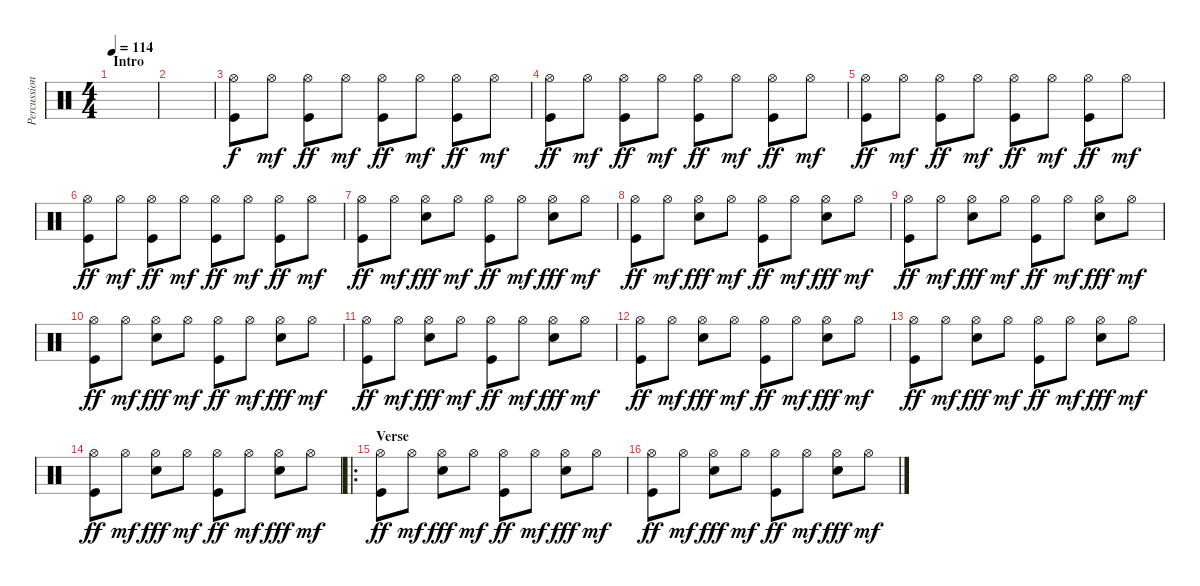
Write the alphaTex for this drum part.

\track ("Percussion" "Percussion") {instrument percussion}
\staff {score}
\articulation defaults
\ts (4 4)
\section ("" "Intro")
\tempo 114
\clef neutral
\ks c
|
|
("Hi-Hat (open)" "Kick (hit)").8 "Hi-Hat (open)".8{dy mf} ("Hi-Hat (open)" "Kick (hit)").8{dy ff} "Hi-Hat (open)".8{dy mf} ("Hi-Hat (open)" "Kick (hit)").8{dy ff} "Hi-Hat (open)".8{dy mf} ("Hi-Hat (open)" "Kick (hit)").8{dy ff} "Hi-Hat (open)".8{dy mf} |
("Hi-Hat (open)" "Kick (hit)").8{dy ff} "Hi-Hat (open)".8{dy mf} ("Hi-Hat (open)" "Kick (hit)").8{dy ff} "Hi-Hat (open)".8{dy mf} ("Hi-Hat (open)" "Kick (hit)").8{dy ff} "Hi-Hat (open)".8{dy mf} ("Hi-Hat (open)" "Kick (hit)").8{dy ff} "Hi-Hat (open)".8{dy mf} |
("Hi-Hat (open)" "Kick (hit)").8{dy ff} "Hi-Hat (open)".8{dy mf} ("Hi-Hat (open)" "Kick (hit)").8{dy ff} "Hi-Hat (open)".8{dy mf} ("Hi-Hat (open)" "Kick (hit)").8{dy ff} "Hi-Hat (open)".8{dy mf} ("Hi-Hat (open)" "Kick (hit)").8{dy ff} "Hi-Hat (open)".8{dy mf} |
("Hi-Hat (open)" "Kick (hit)").8{dy ff} "Hi-Hat (open)".8{dy mf} ("Hi-Hat (open)" "Kick (hit)").8{dy ff} "Hi-Hat (open)".8{dy mf} ("Hi-Hat (open)" "Kick (hit)").8{dy ff} "Hi-Hat (open)".8{dy mf} ("Hi-Hat (open)" "Kick (hit)").8{dy ff} "Hi-Hat (open)".8{dy mf} |
("Hi-Hat (open)" "Kick (hit)").8{dy ff} "Hi-Hat (open)".8{dy mf} ("Hi-Hat (open)" "Snare (hit) 2").8{dy fff} "Hi-Hat (open)".8{dy mf} ("Hi-Hat (open)" "Kick (hit)").8{dy ff} "Hi-Hat (open)".8{dy mf} ("Hi-Hat (open)" "Snare (hit) 2").8{dy fff} "Hi-Hat (open)".8{dy mf} |
("Hi-Hat (open)" "Kick (hit)").8{dy ff} "Hi-Hat (open)".8{dy mf} ("Hi-Hat (open)" "Snare (hit) 2").8{dy fff} "Hi-Hat (open)".8{dy mf} ("Hi-Hat (open)" "Kick (hit)").8{dy ff} "Hi-Hat (open)".8{dy mf} ("Hi-Hat (open)" "Snare (hit) 2").8{dy fff} "Hi-Hat (open)".8{dy mf} |
("Hi-Hat (open)" "Kick (hit)").8{dy ff} "Hi-Hat (open)".8{dy mf} ("Hi-Hat (open)" "Snare (hit) 2").8{dy fff} "Hi-Hat (open)".8{dy mf} ("Hi-Hat (open)" "Kick (hit)").8{dy ff} "Hi-Hat (open)".8{dy mf} ("Hi-Hat (open)" "Snare (hit) 2").8{dy fff} "Hi-Hat (open)".8{dy mf} |
("Hi-Hat (open)" "Kick (hit)").8{dy ff} "Hi-Hat (open)".8{dy mf} ("Hi-Hat (open)" "Snare (hit) 2").8{dy fff} "Hi-Hat (open)".8{dy mf} ("Hi-Hat (open)" "Kick (hit)").8{dy ff} "Hi-Hat (open)".8{dy mf} ("Hi-Hat (open)" "Snare (hit) 2").8{dy fff} "Hi-Hat (open)".8{dy mf} |
("Hi-Hat (open)" "Kick (hit)").8{dy ff} "Hi-Hat (open)".8{dy mf} ("Hi-Hat (open)" "Snare (hit) 2").8{dy fff} "Hi-Hat (open)".8{dy mf} ("Hi-Hat (open)" "Kick (hit)").8{dy ff} "Hi-Hat (open)".8{dy mf} ("Hi-Hat (open)" "Snare (hit) 2").8{dy fff} "Hi-Hat (open)".8{dy mf} |
("Hi-Hat (open)" "Kick (hit)").8{dy ff} "Hi-Hat (open)".8{dy mf} ("Hi-Hat (open)" "Snare (hit) 2").8{dy fff} "Hi-Hat (open)".8{dy mf} ("Hi-Hat (open)" "Kick (hit)").8{dy ff} "Hi-Hat (open)".8{dy mf} ("Hi-Hat (open)" "Snare (hit) 2").8{dy fff} "Hi-Hat (open)".8{dy mf} |
("Hi-Hat (open)" "Kick (hit)").8{dy ff} "Hi-Hat (open)".8{dy mf} ("Hi-Hat (open)" "Snare (hit) 2").8{dy fff} "Hi-Hat (open)".8{dy mf} ("Hi-Hat (open)" "Kick (hit)").8{dy ff} "Hi-Hat (open)".8{dy mf} ("Hi-Hat (open)" "Snare (hit) 2").8{dy fff} "Hi-Hat (open)".8{dy mf} |
("Hi-Hat (open)" "Kick (hit)").8{dy ff} "Hi-Hat (open)".8{dy mf} ("Hi-Hat (open)" "Snare (hit) 2").8{dy fff} "Hi-Hat (open)".8{dy mf} ("Hi-Hat (open)" "Kick (hit)").8{dy ff} "Hi-Hat (open)".8{dy mf} ("Hi-Hat (open)" "Snare (hit) 2").8{dy fff} "Hi-Hat (open)".8{dy mf} |
\ro
\section ("" "Verse")
("Hi-Hat (open)" "Kick (hit)").8{dy ff} "Hi-Hat (open)".8{dy mf} ("Hi-Hat (open)" "Snare (hit) 2").8{dy fff} "Hi-Hat (open)".8{dy mf} ("Hi-Hat (open)" "Kick (hit)").8{dy ff} "Hi-Hat (open)".8{dy mf} ("Hi-Hat (open)" "Snare (hit) 2").8{dy fff} "Hi-Hat (open)".8{dy mf} |
("Hi-Hat (open)" "Kick (hit)").8{dy ff} "Hi-Hat (open)".8{dy mf} ("Hi-Hat (open)" "Snare (hit) 2").8{dy fff} "Hi-Hat (open)".8{dy mf} ("Hi-Hat (open)" "Kick (hit)").8{dy ff} "Hi-Hat (open)".8{dy mf} ("Hi-Hat (open)" "Snare (hit) 2").8{dy fff} "Hi-Hat (open)".8{dy mf}
